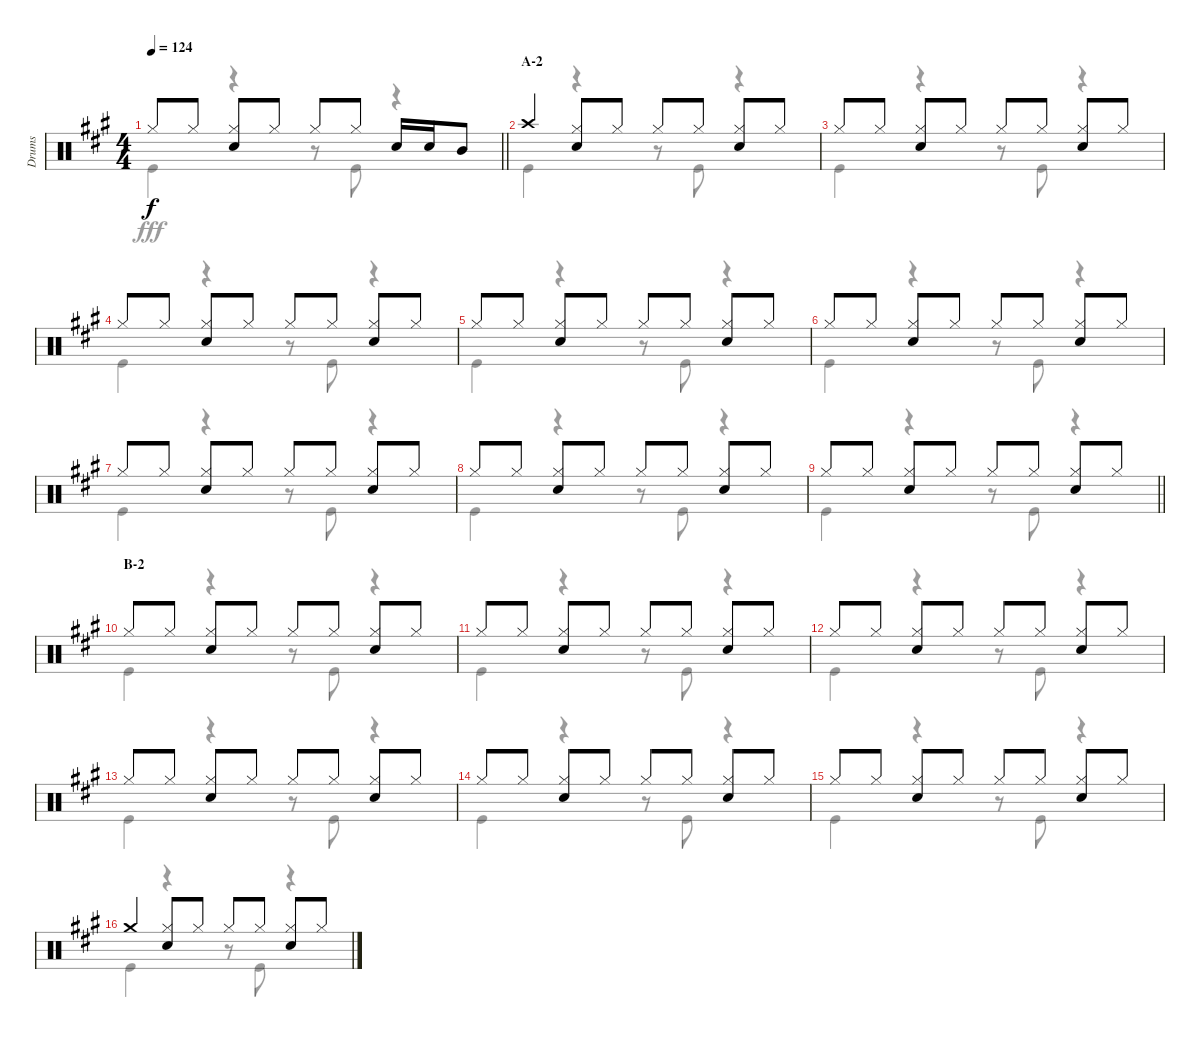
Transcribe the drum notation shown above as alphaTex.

\track ("Drums" "Drums") {instrument percussion}
\staff {score}
\articulation defaults
\voice
\ts (4 4)
\tempo 124
\clef neutral
\barLineRight lightlight
\ks a "Hi-Hat (closed)".8{dy f} "Hi-Hat (closed)".8
("Hi-Hat (closed)" "Snare (hit) 2").8 "Hi-Hat (closed)".8 "Hi-Hat (closed)".8 "Hi-Hat (closed)".8 "Snare (hit) 2".16 "Snare (hit) 2".16 "Mid Tom (hit)".8 |
\section ("" "A-2")
"Crash high (hit)".4 ("Hi-Hat (closed)" "Snare (hit) 2").8 "Hi-Hat (closed)".8 "Hi-Hat (closed)".8 "Hi-Hat (closed)".8 ("Hi-Hat (closed)" "Snare (hit) 2").8 "Hi-Hat (closed)".8 |
"Hi-Hat (closed)".8 "Hi-Hat (closed)".8 ("Hi-Hat (closed)" "Snare (hit) 2").8 "Hi-Hat (closed)".8 "Hi-Hat (closed)".8 "Hi-Hat (closed)".8 ("Hi-Hat (closed)" "Snare (hit) 2").8 "Hi-Hat (closed)".8 |
"Hi-Hat (closed)".8 "Hi-Hat (closed)".8 ("Hi-Hat (closed)" "Snare (hit) 2").8 "Hi-Hat (closed)".8 "Hi-Hat (closed)".8 "Hi-Hat (closed)".8 ("Hi-Hat (closed)" "Snare (hit) 2").8 "Hi-Hat (closed)".8 |
"Hi-Hat (closed)".8 "Hi-Hat (closed)".8 ("Hi-Hat (closed)" "Snare (hit) 2").8 "Hi-Hat (closed)".8 "Hi-Hat (closed)".8 "Hi-Hat (closed)".8 ("Hi-Hat (closed)" "Snare (hit) 2").8 "Hi-Hat (closed)".8 |
"Hi-Hat (closed)".8 "Hi-Hat (closed)".8 ("Hi-Hat (closed)" "Snare (hit) 2").8 "Hi-Hat (closed)".8 "Hi-Hat (closed)".8 "Hi-Hat (closed)".8 ("Hi-Hat (closed)" "Snare (hit) 2").8 "Hi-Hat (closed)".8 |
"Hi-Hat (closed)".8 "Hi-Hat (closed)".8 ("Hi-Hat (closed)" "Snare (hit) 2").8 "Hi-Hat (closed)".8 "Hi-Hat (closed)".8 "Hi-Hat (closed)".8 ("Hi-Hat (closed)" "Snare (hit) 2").8 "Hi-Hat (closed)".8 |
"Hi-Hat (closed)".8 "Hi-Hat (closed)".8 ("Hi-Hat (closed)" "Snare (hit) 2").8 "Hi-Hat (closed)".8 "Hi-Hat (closed)".8 "Hi-Hat (closed)".8 ("Hi-Hat (closed)" "Snare (hit) 2").8 "Hi-Hat (closed)".8 |
\barLineRight lightlight "Hi-Hat (closed)".8 "Hi-Hat (closed)".8
("Hi-Hat (closed)" "Snare (hit) 2").8 "Hi-Hat (closed)".8 "Hi-Hat (closed)".8 "Hi-Hat (closed)".8 ("Hi-Hat (closed)" "Snare (hit) 2").8 "Hi-Hat (closed)".8 |
\section ("" "B-2")
"Hi-Hat (closed)".8 "Hi-Hat (closed)".8 ("Hi-Hat (closed)" "Snare (hit) 2").8 "Hi-Hat (closed)".8 "Hi-Hat (closed)".8 "Hi-Hat (closed)".8 ("Hi-Hat (closed)" "Snare (hit) 2").8 "Hi-Hat (closed)".8 |
"Hi-Hat (closed)".8 "Hi-Hat (closed)".8 ("Hi-Hat (closed)" "Snare (hit) 2").8 "Hi-Hat (closed)".8 "Hi-Hat (closed)".8 "Hi-Hat (closed)".8 ("Hi-Hat (closed)" "Snare (hit) 2").8 "Hi-Hat (closed)".8 |
"Hi-Hat (closed)".8 "Hi-Hat (closed)".8 ("Hi-Hat (closed)" "Snare (hit) 2").8 "Hi-Hat (closed)".8 "Hi-Hat (closed)".8 "Hi-Hat (closed)".8 ("Hi-Hat (closed)" "Snare (hit) 2").8 "Hi-Hat (closed)".8 |
"Hi-Hat (closed)".8 "Hi-Hat (closed)".8 ("Hi-Hat (closed)" "Snare (hit) 2").8 "Hi-Hat (closed)".8 "Hi-Hat (closed)".8 "Hi-Hat (closed)".8 ("Hi-Hat (closed)" "Snare (hit) 2").8 "Hi-Hat (closed)".8 |
"Hi-Hat (closed)".8 "Hi-Hat (closed)".8 ("Hi-Hat (closed)" "Snare (hit) 2").8 "Hi-Hat (closed)".8 "Hi-Hat (closed)".8 "Hi-Hat (closed)".8 ("Hi-Hat (closed)" "Snare (hit) 2").8 "Hi-Hat (closed)".8 |
"Hi-Hat (closed)".8 "Hi-Hat (closed)".8 ("Hi-Hat (closed)" "Snare (hit) 2").8 "Hi-Hat (closed)".8 "Hi-Hat (closed)".8 "Hi-Hat (closed)".8 ("Hi-Hat (closed)" "Snare (hit) 2").8 "Hi-Hat (closed)".8 |
"Crash medium (hit)".4 ("Hi-Hat (closed)" "Snare (hit) 2").8 "Hi-Hat (closed)".8 "Hi-Hat (closed)".8 "Hi-Hat (closed)".8 ("Hi-Hat (closed)" "Snare (hit) 2").8 "Hi-Hat (closed)".8
\voice
\clef neutral
\ottava regular
\simile none
\barLineRight lightlight
\ks a "Kick (hit)".4{dy fff}
r.4 r.8 "Kick (hit)".8 r.4 |
"Kick (hit)".4 r.4 r.8 "Kick (hit)".8 r.4 |
"Kick (hit)".4 r.4 r.8 "Kick (hit)".8 r.4 |
"Kick (hit)".4 r.4 r.8 "Kick (hit)".8 r.4 |
"Kick (hit)".4 r.4 r.8 "Kick (hit)".8 r.4 |
"Kick (hit)".4 r.4 r.8 "Kick (hit)".8 r.4 |
"Kick (hit)".4 r.4 r.8 "Kick (hit)".8 r.4 |
"Kick (hit)".4 r.4 r.8 "Kick (hit)".8 r.4 |
\barLineRight lightlight "Kick (hit)".4
r.4 r.8 "Kick (hit)".8 r.4 |
"Kick (hit)".4 r.4 r.8 "Kick (hit)".8 r.4 |
"Kick (hit)".4 r.4 r.8 "Kick (hit)".8 r.4 |
"Kick (hit)".4 r.4 r.8 "Kick (hit)".8 r.4 |
"Kick (hit)".4 r.4 r.8 "Kick (hit)".8 r.4 |
"Kick (hit)".4 r.4 r.8 "Kick (hit)".8 r.4 |
"Kick (hit)".4 r.4 r.8 "Kick (hit)".8 r.4 |
"Kick (hit)".4 r.4 r.8 "Kick (hit)".8 r.4
